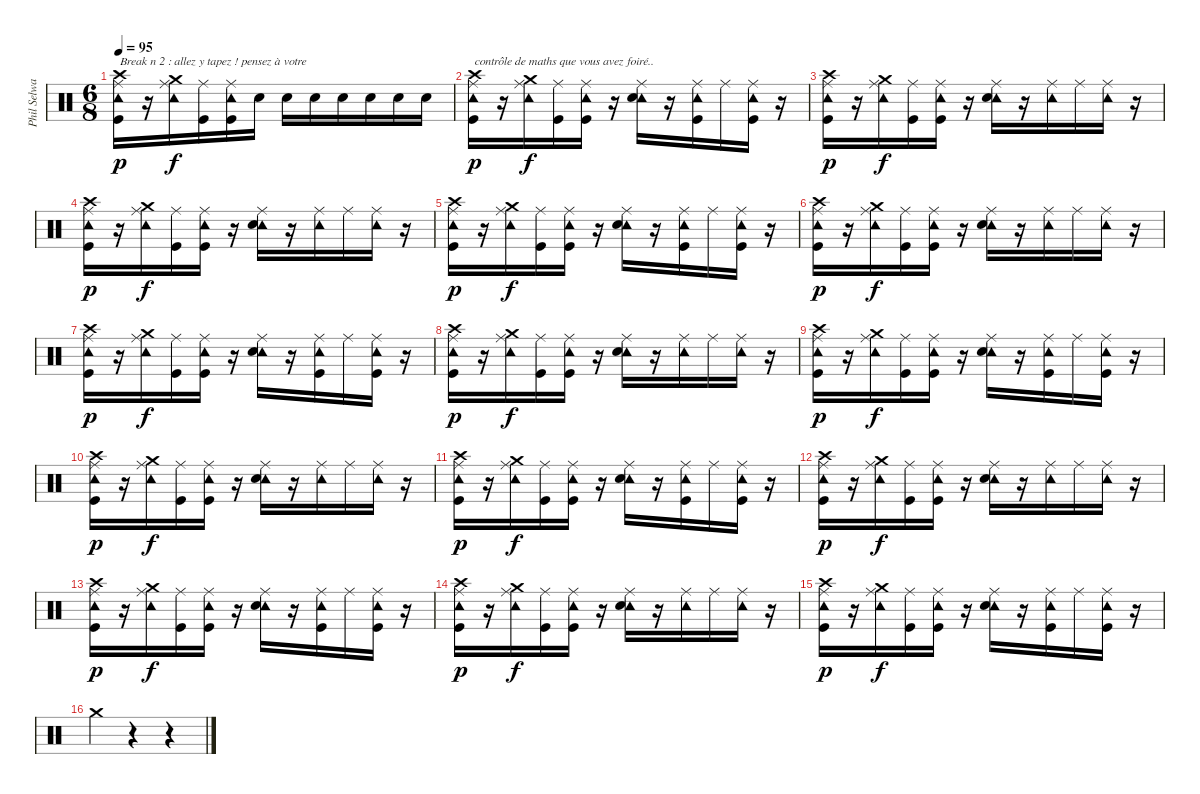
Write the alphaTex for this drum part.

\track ("Phil Selway (Percussions)" "Phil Selwa") {instrument percussion}
\staff {score}
\articulation defaults
\ts (6 8)
\tempo 95
\clef neutral
\ks c
("Ride (middle)" "Tambourine (hit)" "Crash high (hit)" "Kick (hit)").16{txt "Break n 2 : allez y tapez ! pensez à votre " dy p} r.16 ("Ride (middle)" "Tambourine (hit)" "Crash medium (hit)").16{dy f} ("Ride (middle)" "Kick (hit)").16 ("Ride (middle)" "Tambourine (hit)" "Kick (hit)").16 "Electric Snare (hit)".16 "Electric Snare (hit)".16 "Electric Snare (hit)".16 "Electric Snare (hit)".16 "Electric Snare (hit)".16 "Electric Snare (hit)".16 "Electric Snare (hit)".16 |
("Ride (middle)" "Tambourine (hit)" "Crash high (hit)" "Kick (hit)").16{txt "contrôle de maths que vous avez foiré.." dy p} r.16 ("Ride (middle)" "Tambourine (hit)" "Crash medium (hit)").16{dy f} ("Ride (middle)" "Kick (hit)").16 ("Ride (middle)" "Tambourine (hit)" "Kick (hit)").16 r.16 ("Ride (middle)" "Tambourine (hit)" "Electric Snare (hit)").16 r.16 ("Ride (middle)" "Tambourine (hit)" "Kick (hit)").16 "Ride (middle)".16 ("Ride (middle)" "Tambourine (hit)" "Kick (hit)").16 r.16 |
("Ride (middle)" "Tambourine (hit)" "Crash high (hit)" "Kick (hit)").16{dy p} r.16 ("Ride (middle)" "Tambourine (hit)" "Crash medium (hit)").16{dy f} ("Ride (middle)" "Kick (hit)").16 ("Ride (middle)" "Tambourine (hit)" "Kick (hit)").16 r.16 ("Ride (middle)" "Tambourine (hit)" "Electric Snare (hit)").16 r.16 ("Ride (middle)" "Tambourine (hit)").16 "Ride (middle)".16 ("Ride (middle)" "Tambourine (hit)").16 r.16 |
("Ride (middle)" "Tambourine (hit)" "Crash high (hit)" "Kick (hit)").16{dy p} r.16 ("Ride (middle)" "Tambourine (hit)" "Crash medium (hit)").16{dy f} ("Ride (middle)" "Kick (hit)").16 ("Ride (middle)" "Tambourine (hit)" "Kick (hit)").16 r.16 ("Ride (middle)" "Tambourine (hit)" "Electric Snare (hit)").16 r.16 ("Ride (middle)" "Tambourine (hit)").16 "Ride (middle)".16 ("Ride (middle)" "Tambourine (hit)").16 r.16 |
("Ride (middle)" "Tambourine (hit)" "Crash high (hit)" "Kick (hit)").16{dy p} r.16 ("Ride (middle)" "Tambourine (hit)" "Crash medium (hit)").16{dy f} ("Ride (middle)" "Kick (hit)").16 ("Ride (middle)" "Tambourine (hit)" "Kick (hit)").16 r.16 ("Ride (middle)" "Tambourine (hit)" "Electric Snare (hit)").16 r.16 ("Ride (middle)" "Tambourine (hit)" "Kick (hit)").16 "Ride (middle)".16 ("Ride (middle)" "Tambourine (hit)" "Kick (hit)").16 r.16 |
("Ride (middle)" "Tambourine (hit)" "Crash high (hit)" "Kick (hit)").16{dy p} r.16 ("Ride (middle)" "Tambourine (hit)" "Crash medium (hit)").16{dy f} ("Ride (middle)" "Kick (hit)").16 ("Ride (middle)" "Tambourine (hit)" "Kick (hit)").16 r.16 ("Ride (middle)" "Tambourine (hit)" "Electric Snare (hit)").16 r.16 ("Ride (middle)" "Tambourine (hit)").16 "Ride (middle)".16 ("Ride (middle)" "Tambourine (hit)").16 r.16 |
("Ride (middle)" "Tambourine (hit)" "Crash high (hit)" "Kick (hit)").16{dy p} r.16 ("Ride (middle)" "Tambourine (hit)" "Crash medium (hit)").16{dy f} ("Ride (middle)" "Kick (hit)").16 ("Ride (middle)" "Tambourine (hit)" "Kick (hit)").16 r.16 ("Ride (middle)" "Tambourine (hit)" "Electric Snare (hit)").16 r.16 ("Ride (middle)" "Tambourine (hit)" "Kick (hit)").16 "Ride (middle)".16 ("Ride (middle)" "Tambourine (hit)" "Kick (hit)").16 r.16 |
("Ride (middle)" "Tambourine (hit)" "Crash high (hit)" "Kick (hit)").16{dy p} r.16 ("Ride (middle)" "Tambourine (hit)" "Crash medium (hit)").16{dy f} ("Ride (middle)" "Kick (hit)").16 ("Ride (middle)" "Tambourine (hit)" "Kick (hit)").16 r.16 ("Ride (middle)" "Tambourine (hit)" "Electric Snare (hit)").16 r.16 ("Ride (middle)" "Tambourine (hit)").16 "Ride (middle)".16 ("Ride (middle)" "Tambourine (hit)").16 r.16 |
("Ride (middle)" "Tambourine (hit)" "Crash high (hit)" "Kick (hit)").16{dy p} r.16 ("Ride (middle)" "Tambourine (hit)" "Crash medium (hit)").16{dy f} ("Ride (middle)" "Kick (hit)").16 ("Ride (middle)" "Tambourine (hit)" "Kick (hit)").16 r.16 ("Ride (middle)" "Tambourine (hit)" "Electric Snare (hit)").16 r.16 ("Ride (middle)" "Tambourine (hit)" "Kick (hit)").16 "Ride (middle)".16 ("Ride (middle)" "Tambourine (hit)" "Kick (hit)").16 r.16 |
("Ride (middle)" "Tambourine (hit)" "Crash high (hit)" "Kick (hit)").16{dy p} r.16 ("Ride (middle)" "Tambourine (hit)" "Crash medium (hit)").16{dy f} ("Ride (middle)" "Kick (hit)").16 ("Ride (middle)" "Tambourine (hit)" "Kick (hit)").16 r.16 ("Ride (middle)" "Tambourine (hit)" "Electric Snare (hit)").16 r.16 ("Ride (middle)" "Tambourine (hit)").16 "Ride (middle)".16 ("Ride (middle)" "Tambourine (hit)").16 r.16 |
("Ride (middle)" "Tambourine (hit)" "Crash high (hit)" "Kick (hit)").16{dy p} r.16 ("Ride (middle)" "Tambourine (hit)" "Crash medium (hit)").16{dy f} ("Ride (middle)" "Kick (hit)").16 ("Ride (middle)" "Tambourine (hit)" "Kick (hit)").16 r.16 ("Ride (middle)" "Tambourine (hit)" "Electric Snare (hit)").16 r.16 ("Ride (middle)" "Tambourine (hit)" "Kick (hit)").16 "Ride (middle)".16 ("Ride (middle)" "Tambourine (hit)" "Kick (hit)").16 r.16 |
("Ride (middle)" "Tambourine (hit)" "Crash high (hit)" "Kick (hit)").16{dy p} r.16 ("Ride (middle)" "Tambourine (hit)" "Crash medium (hit)").16{dy f} ("Ride (middle)" "Kick (hit)").16 ("Ride (middle)" "Tambourine (hit)" "Kick (hit)").16 r.16 ("Ride (middle)" "Tambourine (hit)" "Electric Snare (hit)").16 r.16 ("Ride (middle)" "Tambourine (hit)").16 "Ride (middle)".16 ("Ride (middle)" "Tambourine (hit)").16 r.16 |
("Ride (middle)" "Tambourine (hit)" "Crash high (hit)" "Kick (hit)").16{dy p} r.16 ("Ride (middle)" "Tambourine (hit)" "Crash medium (hit)").16{dy f} ("Ride (middle)" "Kick (hit)").16 ("Ride (middle)" "Tambourine (hit)" "Kick (hit)").16 r.16 ("Ride (middle)" "Tambourine (hit)" "Electric Snare (hit)").16 r.16 ("Ride (middle)" "Tambourine (hit)" "Kick (hit)").16 "Ride (middle)".16 ("Ride (middle)" "Tambourine (hit)" "Kick (hit)").16 r.16 |
("Ride (middle)" "Tambourine (hit)" "Crash high (hit)" "Kick (hit)").16{dy p} r.16 ("Ride (middle)" "Tambourine (hit)" "Crash medium (hit)").16{dy f} ("Ride (middle)" "Kick (hit)").16 ("Ride (middle)" "Tambourine (hit)" "Kick (hit)").16 r.16 ("Ride (middle)" "Tambourine (hit)" "Electric Snare (hit)").16 r.16 ("Ride (middle)" "Tambourine (hit)").16 "Ride (middle)".16 ("Ride (middle)" "Tambourine (hit)").16 r.16 |
("Ride (middle)" "Tambourine (hit)" "Crash high (hit)" "Kick (hit)").16{dy p} r.16 ("Ride (middle)" "Tambourine (hit)" "Crash medium (hit)").16{dy f} ("Ride (middle)" "Kick (hit)").16 ("Ride (middle)" "Tambourine (hit)" "Kick (hit)").16 r.16 ("Ride (middle)" "Tambourine (hit)" "Electric Snare (hit)").16 r.16 ("Ride (middle)" "Tambourine (hit)" "Kick (hit)").16 "Ride (middle)".16 ("Ride (middle)" "Tambourine (hit)" "Kick (hit)").16 r.16 |
"Crash medium (hit)".4 r.4 r.4
